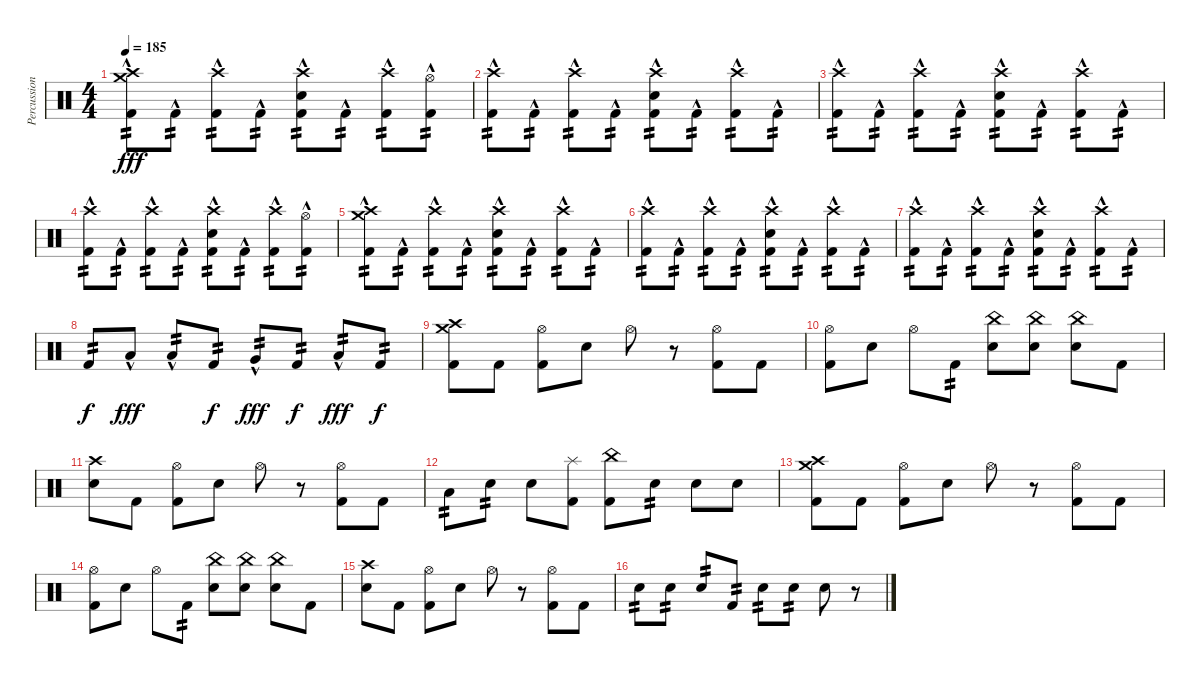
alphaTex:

\track ("Percussion" "Percussion") {instrument percussion}
\staff {score}
\articulation defaults
\ts (4 4)
\tempo 185
\clef neutral
\ks c
("Crash high (hit)" "Crash medium (hit)" "Kick (hit) 2"{hac}).8{tp 2 dy fff} "Kick (hit) 2"{hac}.8{tp 2} ("Crash high (hit)" "Kick (hit) 2"{hac}).8{tp 2} "Kick (hit) 2"{hac}.8{tp 2} ("Crash high (hit)" "Snare (hit) 2" "Kick (hit) 2"{hac}).8{tp 2} "Kick (hit) 2"{hac}.8{tp 2} ("Crash high (hit)" "Kick (hit) 2"{hac}).8{tp 2} ("Hi-Hat (open)" "Kick (hit) 2"{hac}).8{tp 2} |
("Crash high (hit)" "Kick (hit) 2"{hac}).8{tp 2} "Kick (hit) 2"{hac}.8{tp 2} ("Crash high (hit)" "Kick (hit) 2"{hac}).8{tp 2} "Kick (hit) 2"{hac}.8{tp 2} ("Crash high (hit)" "Snare (hit) 2" "Kick (hit) 2"{hac}).8{tp 2} "Kick (hit) 2"{hac}.8{tp 2} ("Crash high (hit)" "Kick (hit) 2"{hac}).8{tp 2} "Kick (hit) 2"{hac}.8{tp 2} |
("Crash high (hit)" "Kick (hit) 2"{hac}).8{tp 2} "Kick (hit) 2"{hac}.8{tp 2} ("Crash high (hit)" "Kick (hit) 2"{hac}).8{tp 2} "Kick (hit) 2"{hac}.8{tp 2} ("Crash high (hit)" "Snare (hit) 2" "Kick (hit) 2"{hac}).8{tp 2} "Kick (hit) 2"{hac}.8{tp 2} ("Crash high (hit)" "Kick (hit) 2"{hac}).8{tp 2} "Kick (hit) 2"{hac}.8{tp 2} |
("Crash high (hit)" "Kick (hit) 2"{hac}).8{tp 2} "Kick (hit) 2"{hac}.8{tp 2} ("Crash high (hit)" "Kick (hit) 2"{hac}).8{tp 2} "Kick (hit) 2"{hac}.8{tp 2} ("Crash high (hit)" "Snare (hit) 2" "Kick (hit) 2"{hac}).8{tp 2} "Kick (hit) 2"{hac}.8{tp 2} ("Crash high (hit)" "Kick (hit) 2"{hac}).8{tp 2} ("Hi-Hat (open)" "Kick (hit) 2"{hac}).8{tp 2} |
("Crash high (hit)" "Crash medium (hit)" "Kick (hit) 2"{hac}).8{tp 2} "Kick (hit) 2"{hac}.8{tp 2} ("Crash high (hit)" "Kick (hit) 2"{hac}).8{tp 2} "Kick (hit) 2"{hac}.8{tp 2} ("Crash high (hit)" "Snare (hit) 2" "Kick (hit) 2"{hac}).8{tp 2} "Kick (hit) 2"{hac}.8{tp 2} ("Crash high (hit)" "Kick (hit) 2"{hac}).8{tp 2} "Kick (hit) 2"{hac}.8{tp 2} |
("Crash high (hit)" "Kick (hit) 2"{hac}).8{tp 2} "Kick (hit) 2"{hac}.8{tp 2} ("Crash high (hit)" "Kick (hit) 2"{hac}).8{tp 2} "Kick (hit) 2"{hac}.8{tp 2} ("Crash high (hit)" "Snare (hit) 2" "Kick (hit) 2"{hac}).8{tp 2} "Kick (hit) 2"{hac}.8{tp 2} ("Crash high (hit)" "Kick (hit) 2"{hac}).8{tp 2} "Kick (hit) 2"{hac}.8{tp 2} |
("Crash high (hit)" "Kick (hit) 2"{hac}).8{tp 2} "Kick (hit) 2"{hac}.8{tp 2} ("Crash high (hit)" "Kick (hit) 2"{hac}).8{tp 2} "Kick (hit) 2"{hac}.8{tp 2} ("Crash high (hit)" "Snare (hit) 2" "Kick (hit) 2"{hac}).8{tp 2} "Kick (hit) 2"{hac}.8{tp 2} ("Crash high (hit)" "Kick (hit) 2"{hac}).8{tp 2} "Kick (hit) 2"{hac}.8{tp 2} |
"Kick (hit) 2".8{tp 2 dy f} "Low Tom (hit)"{hac}.8{dy fff} "Low Tom (hit)"{hac}.8{tp 2} "Kick (hit) 2".8{tp 2 dy f} "Very Low Tom (hit)"{hac}.8{tp 2 dy fff} "Kick (hit) 2".8{tp 2 dy f} "Low Floor Tom (hit)"{hac}.8{tp 2 dy fff} "Kick (hit) 2".8{tp 2 dy f} |
("Crash medium (hit)" "Crash high (hit)" "Kick (hit) 2").8 "Kick (hit) 2".8 ("Hi-Hat (open)" "Kick (hit) 2").8 "Snare (hit) 2".8 "Hi-Hat (open)".8 r.8 ("Hi-Hat (open)" "Kick (hit) 2").8 "Kick (hit) 2".8 |
("Hi-Hat (open)" "Kick (hit) 2").8 "Snare (hit) 2".8 "Hi-Hat (open)".8 "Kick (hit) 2".8{tp 2} ("Snare (hit) 2" "China (hit)").8 ("Snare (hit) 2" "China (hit)").8 ("Snare (hit) 2" "China (hit)").8 "Kick (hit) 2".8 |
("Crash high (hit)" "Snare (hit) 2").8 "Kick (hit) 2".8 ("Hi-Hat (open)" "Kick (hit) 2").8 "Snare (hit) 2".8 "Hi-Hat (open)".8 r.8 ("Hi-Hat (open)" "Kick (hit) 2").8 "Kick (hit) 2".8 |
"Low Tom (hit)".8{tp 2} "Snare (hit) 2".8{tp 2} "Snare (hit) 2".8 ("Kick (hit) 2" "Splash (hit)").8 ("Kick (hit) 2" "China (hit)").8 "Snare (hit) 2".8{tp 2} "Snare (hit) 2".8 "Snare (hit) 2".8 |
("Crash medium (hit)" "Crash high (hit)" "Kick (hit) 2").8 "Kick (hit) 2".8 ("Hi-Hat (open)" "Kick (hit) 2").8 "Snare (hit) 2".8 "Hi-Hat (open)".8 r.8 ("Hi-Hat (open)" "Kick (hit) 2").8 "Kick (hit) 2".8 |
("Hi-Hat (open)" "Kick (hit) 2").8 "Snare (hit) 2".8 "Hi-Hat (open)".8 "Kick (hit) 2".8{tp 2} ("Snare (hit) 2" "China (hit)").8 ("Snare (hit) 2" "China (hit)").8 ("Snare (hit) 2" "China (hit)").8 "Kick (hit) 2".8 |
("Crash high (hit)" "Snare (hit) 2").8 "Kick (hit) 2".8 ("Hi-Hat (open)" "Kick (hit) 2").8 "Snare (hit) 2".8 "Hi-Hat (open)".8 r.8 ("Hi-Hat (open)" "Kick (hit) 2").8 "Kick (hit) 2".8 |
"Snare (hit) 2".8{tp 2} "Snare (hit) 2".8{tp 2} "Snare (hit) 2".8{tp 2} "Kick (hit) 2".8{tp 2} "Snare (hit) 2".8{tp 2} "Snare (hit) 2".8{tp 2} "Snare (hit) 2".8 r.8
